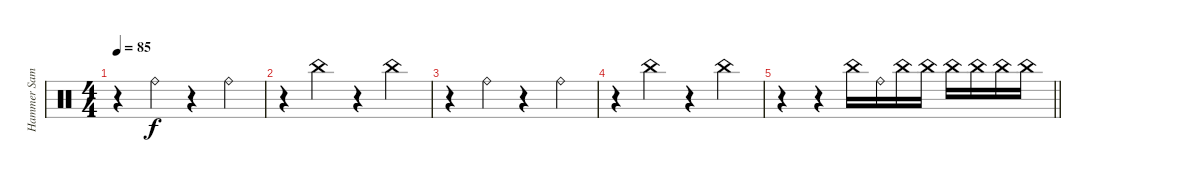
\track ("Hammer Samples" "Hammer Sam") {instrument percussion}
\staff {score}
\articulation defaults
\ts (4 4)
\tempo 85
\clef neutral
\ks c
r.4{dy f} "Ride (bell)".4 r.4 "Ride (bell)".4 |
r.4 "China (hit)".4 r.4 "China (hit)".4 |
r.4 "Ride (bell)".4 r.4 "Ride (bell)".4 |
r.4 "China (hit)".4 r.4 "China (hit)".4 |
\barLineRight lightlight
r.4 r.4 "China (hit)".16 "Ride (bell)".16 "China (hit)".16 "China (hit)".16 "China (hit)".16 "China (hit)".16 "China (hit)".16 "China (hit)".16
